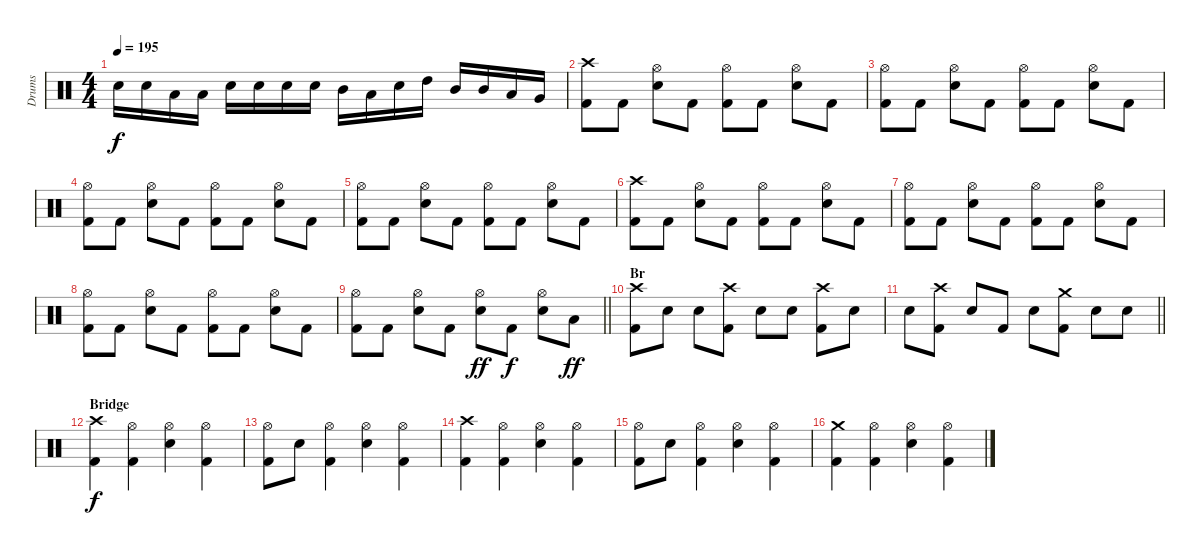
\track ("Drums" "Drums") {instrument percussion}
\staff {score}
\articulation defaults
\ts (4 4)
\tempo 195
\clef neutral
\ks c "Electric Snare (hit)".16{dy f} "Electric Snare (hit)".16 "Low Tom (hit)".16 "Low Tom (hit)".16 "Electric Snare (hit)".16 "Electric Snare (hit)".16 "Electric Snare (hit)".16 "Electric Snare (hit)".16 "Mid Tom (hit)".16 "Low Tom (hit)".16 "Electric Snare (hit)".16 "High Tom (hit)".16 "Mid Tom (hit)".16 "Mid Tom (hit)".16 "Low Tom (hit)".16 "Very Low Tom (hit)".16
|
("Crash high (hit)" "Kick (hit) 2").8 "Kick (hit) 2".8 ("Hi-Hat (open)" "Electric Snare (hit)").8 "Kick (hit) 2".8 ("Hi-Hat (open)" "Kick (hit) 2").8 "Kick (hit) 2".8 ("Hi-Hat (open)" "Electric Snare (hit)").8 "Kick (hit) 2".8 |
("Hi-Hat (open)" "Kick (hit) 2").8 "Kick (hit) 2".8 ("Hi-Hat (open)" "Electric Snare (hit)").8 "Kick (hit) 2".8 ("Hi-Hat (open)" "Kick (hit) 2").8 "Kick (hit) 2".8 ("Hi-Hat (open)" "Electric Snare (hit)").8 "Kick (hit) 2".8 |
("Hi-Hat (open)" "Kick (hit) 2").8 "Kick (hit) 2".8 ("Hi-Hat (open)" "Electric Snare (hit)").8 "Kick (hit) 2".8 ("Hi-Hat (open)" "Kick (hit) 2").8 "Kick (hit) 2".8 ("Hi-Hat (open)" "Electric Snare (hit)").8 "Kick (hit) 2".8 |
("Hi-Hat (open)" "Kick (hit) 2").8 "Kick (hit) 2".8 ("Hi-Hat (open)" "Electric Snare (hit)").8 "Kick (hit) 2".8 ("Hi-Hat (open)" "Kick (hit) 2").8 "Kick (hit) 2".8 ("Hi-Hat (open)" "Electric Snare (hit)").8 "Kick (hit) 2".8 |
("Crash high (hit)" "Kick (hit) 2").8 "Kick (hit) 2".8 ("Hi-Hat (open)" "Electric Snare (hit)").8 "Kick (hit) 2".8 ("Hi-Hat (open)" "Kick (hit) 2").8 "Kick (hit) 2".8 ("Hi-Hat (open)" "Electric Snare (hit)").8 "Kick (hit) 2".8 |
("Hi-Hat (open)" "Kick (hit) 2").8 "Kick (hit) 2".8 ("Hi-Hat (open)" "Electric Snare (hit)").8 "Kick (hit) 2".8 ("Hi-Hat (open)" "Kick (hit) 2").8 "Kick (hit) 2".8 ("Hi-Hat (open)" "Electric Snare (hit)").8 "Kick (hit) 2".8 |
("Hi-Hat (open)" "Kick (hit) 2").8 "Kick (hit) 2".8 ("Hi-Hat (open)" "Electric Snare (hit)").8 "Kick (hit) 2".8 ("Hi-Hat (open)" "Kick (hit) 2").8 "Kick (hit) 2".8 ("Hi-Hat (open)" "Electric Snare (hit)").8 "Kick (hit) 2".8 |
\barLineRight lightlight
("Hi-Hat (open)" "Kick (hit) 2").8 "Kick (hit) 2".8 ("Hi-Hat (open)" "Electric Snare (hit)").8 "Kick (hit) 2".8 ("Hi-Hat (open)" "Electric Snare (hit)").8{dy ff} "Kick (hit) 2".8{dy f} ("Hi-Hat (open)" "Electric Snare (hit)").8 "Low Tom (hit)".8{dy ff} |
\section ("" "Br")
("Crash high (hit)" "Kick (hit) 2").8 "Electric Snare (hit)".8 "Electric Snare (hit)".8 ("Crash high (hit)" "Kick (hit) 2").8 "Electric Snare (hit)".8 "Electric Snare (hit)".8 ("Crash high (hit)" "Kick (hit) 2").8 "Electric Snare (hit)".8 |
\barLineRight lightlight "Electric Snare (hit)".8
("Crash high (hit)" "Kick (hit) 2").8 "Electric Snare (hit)".8 "Kick (hit) 2".8 "Electric Snare (hit)".8 ("Crash medium (hit)" "Kick (hit) 2").8 "Electric Snare (hit)".8 "Electric Snare (hit)".8 |
\section ("" "Bridge")
("Crash high (hit)" "Kick (hit) 2").4{dy f} ("Hi-Hat (open)" "Kick (hit) 2").4 ("Hi-Hat (open)" "Electric Snare (hit)").4 ("Hi-Hat (open)" "Kick (hit) 2").4 |
("Hi-Hat (open)" "Kick (hit) 2").8 "Electric Snare (hit)".8 ("Hi-Hat (open)" "Kick (hit) 2").4 ("Hi-Hat (open)" "Electric Snare (hit)").4 ("Hi-Hat (open)" "Kick (hit) 2").4 |
("Crash high (hit)" "Kick (hit) 2").4 ("Hi-Hat (open)" "Kick (hit) 2").4 ("Hi-Hat (open)" "Electric Snare (hit)").4 ("Hi-Hat (open)" "Kick (hit) 2").4 |
("Hi-Hat (open)" "Kick (hit) 2").8 "Electric Snare (hit)".8 ("Hi-Hat (open)" "Kick (hit) 2").4 ("Hi-Hat (open)" "Electric Snare (hit)").4 ("Hi-Hat (open)" "Kick (hit) 2").4 |
("Crash medium (hit)" "Kick (hit) 2").4 ("Hi-Hat (open)" "Kick (hit) 2").4 ("Hi-Hat (open)" "Electric Snare (hit)").4 ("Hi-Hat (open)" "Kick (hit) 2").4
